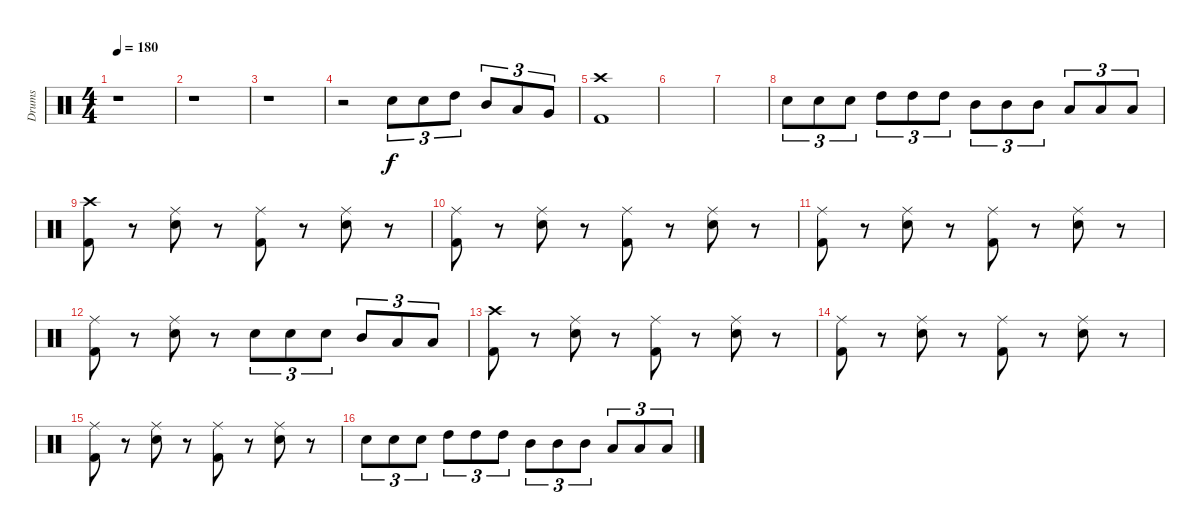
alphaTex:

\track ("Drums" "Drums") {instrument percussion}
\staff {score}
\articulation defaults
\ts (4 4)
\tempo 180
\clef neutral
\ks c
r.1{dy f} |
r.1 |
r.1 |
r.2 "Electric Snare (hit)".8{tu (3 2)} "Electric Snare (hit)".8{tu (3 2)} "High Tom (hit)".8{tu (3 2)} "Mid Tom (hit)".8{tu (3 2)} "Low Tom (hit)".8{tu (3 2)} "Very Low Tom (hit)".8{tu (3 2)} |
("Crash high (hit)" "Kick (hit) 2").1 |
|
|
"Electric Snare (hit)".8{tu (3 2)} "Electric Snare (hit)".8{tu (3 2)} "Electric Snare (hit)".8{tu (3 2)} "High Tom (hit)".8{tu (3 2)} "High Tom (hit)".8{tu (3 2)} "High Tom (hit)".8{tu (3 2)} "Mid Tom (hit)".8{tu (3 2)} "Mid Tom (hit)".8{tu (3 2)} "Mid Tom (hit)".8{tu (3 2)} "Low Tom (hit)".8{tu (3 2)} "Low Tom (hit)".8{tu (3 2)} "Low Tom (hit)".8{tu (3 2)} |
("Crash high (hit)" "Kick (hit) 2").8 r.8 ("Ride (middle)" "Electric Snare (hit)").8 r.8 ("Ride (middle)" "Kick (hit) 2").8 r.8 ("Ride (middle)" "Electric Snare (hit)").8 r.8 |
("Ride (middle)" "Kick (hit) 2").8 r.8 ("Ride (middle)" "Electric Snare (hit)").8 r.8 ("Ride (middle)" "Kick (hit) 2").8 r.8 ("Ride (middle)" "Electric Snare (hit)").8 r.8 |
("Ride (middle)" "Kick (hit) 2").8 r.8 ("Ride (middle)" "Electric Snare (hit)").8 r.8 ("Ride (middle)" "Kick (hit) 2").8 r.8 ("Ride (middle)" "Electric Snare (hit)").8 r.8 |
("Ride (middle)" "Kick (hit) 2").8 r.8 ("Ride (middle)" "Electric Snare (hit)").8 r.8 "Electric Snare (hit)".8{tu (3 2)} "Electric Snare (hit)".8{tu (3 2)} "Electric Snare (hit)".8{tu (3 2)} "Mid Tom (hit)".8{tu (3 2)} "Low Tom (hit)".8{tu (3 2)} "Low Tom (hit)".8{tu (3 2)} |
("Crash high (hit)" "Kick (hit) 2").8 r.8 ("Ride (middle)" "Electric Snare (hit)").8 r.8 ("Ride (middle)" "Kick (hit) 2").8 r.8 ("Ride (middle)" "Electric Snare (hit)").8 r.8 |
("Ride (middle)" "Kick (hit) 2").8 r.8 ("Ride (middle)" "Electric Snare (hit)").8 r.8 ("Ride (middle)" "Kick (hit) 2").8 r.8 ("Ride (middle)" "Electric Snare (hit)").8 r.8 |
("Ride (middle)" "Kick (hit) 2").8 r.8 ("Ride (middle)" "Electric Snare (hit)").8 r.8 ("Ride (middle)" "Kick (hit) 2").8 r.8 ("Ride (middle)" "Electric Snare (hit)").8 r.8 |
"Electric Snare (hit)".8{tu (3 2)} "Electric Snare (hit)".8{tu (3 2)} "Electric Snare (hit)".8{tu (3 2)} "High Tom (hit)".8{tu (3 2)} "High Tom (hit)".8{tu (3 2)} "High Tom (hit)".8{tu (3 2)} "Mid Tom (hit)".8{tu (3 2)} "Mid Tom (hit)".8{tu (3 2)} "Mid Tom (hit)".8{tu (3 2)} "Low Tom (hit)".8{tu (3 2)} "Low Tom (hit)".8{tu (3 2)} "Low Tom (hit)".8{tu (3 2)}
